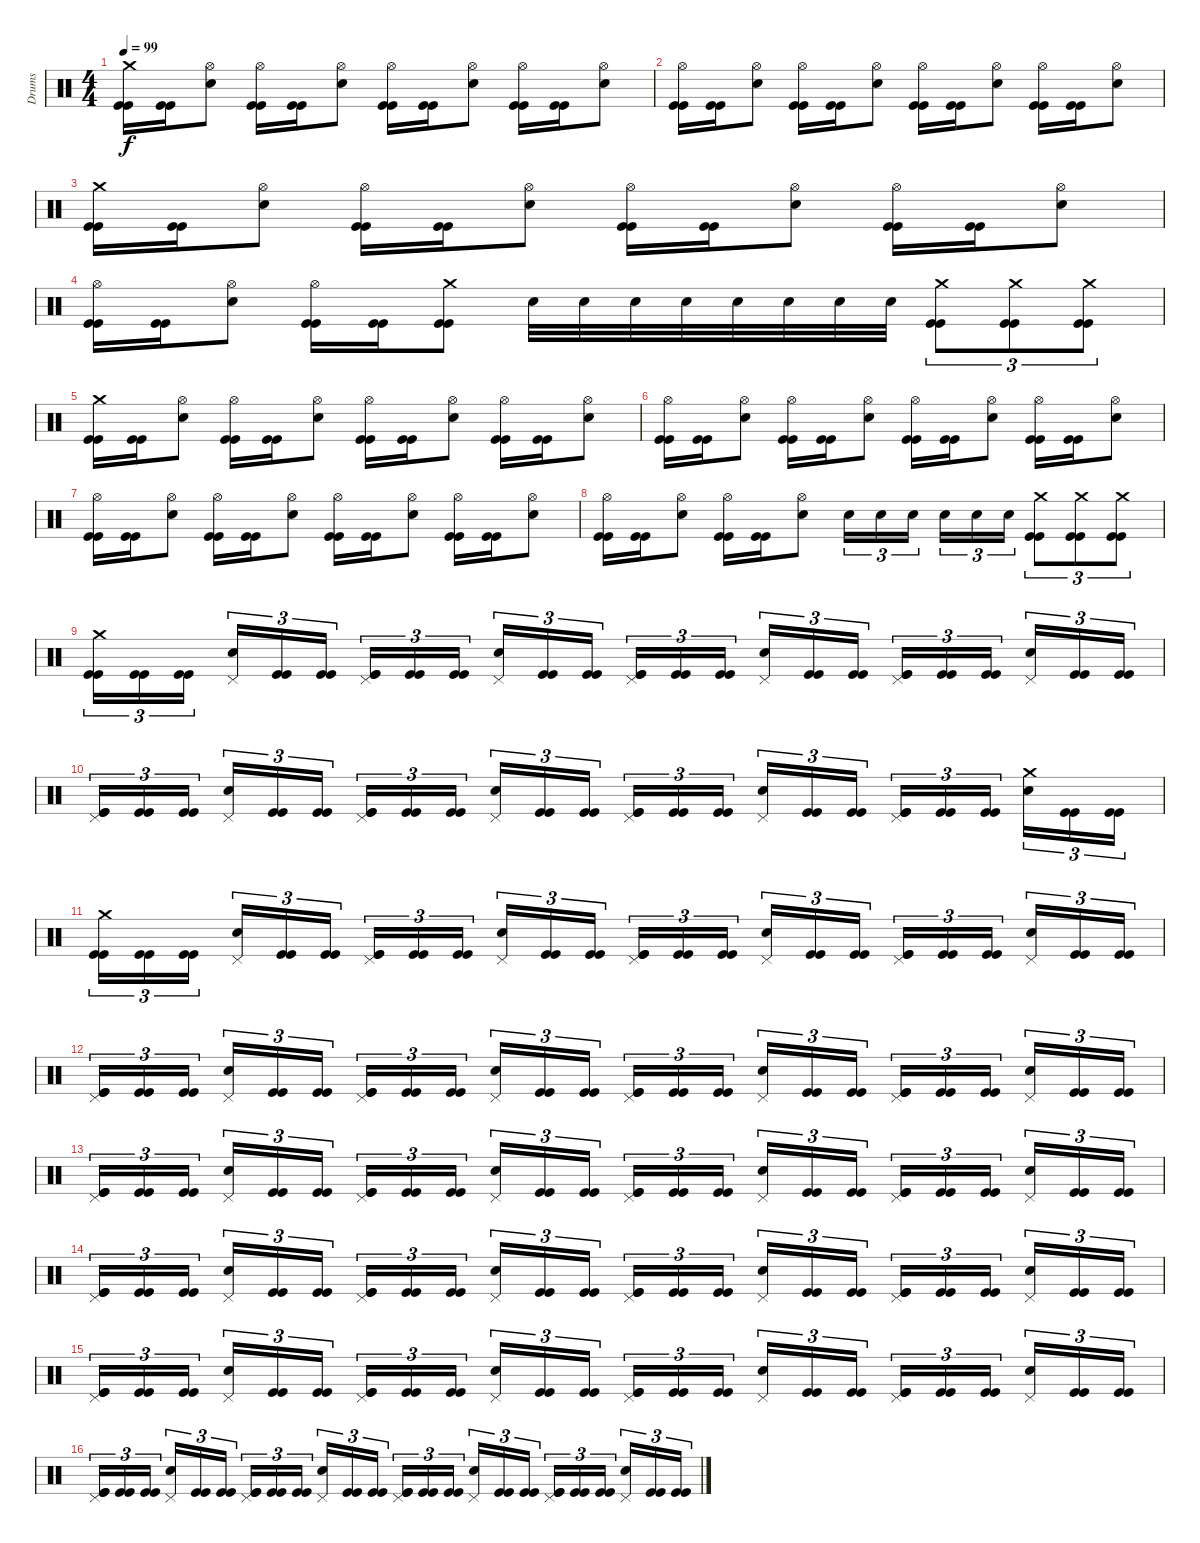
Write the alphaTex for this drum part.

\track ("Drums" "Drums") {instrument percussion}
\staff {score}
\articulation defaults
\ts (4 4)
\tempo 99
\clef neutral
\ks c
("Crash medium (hit)" "Kick (hit)" "Kick (hit)").16{dy f} ("Kick (hit)" "Kick (hit)").16 ("Hi-Hat (open)" "Snare (hit) 2").8 ("Hi-Hat (open)" "Kick (hit)" "Kick (hit)").16 ("Kick (hit)" "Kick (hit)").16 ("Hi-Hat (open)" "Snare (hit) 2").8 ("Hi-Hat (open)" "Kick (hit)" "Kick (hit)").16 ("Kick (hit)" "Kick (hit)").16 ("Hi-Hat (open)" "Snare (hit) 2").8 ("Hi-Hat (open)" "Kick (hit)" "Kick (hit)").16 ("Kick (hit)" "Kick (hit)").16 ("Hi-Hat (open)" "Snare (hit) 2").8 |
("Hi-Hat (open)" "Kick (hit)" "Kick (hit)").16 ("Kick (hit)" "Kick (hit)").16 ("Hi-Hat (open)" "Snare (hit) 2").8 ("Hi-Hat (open)" "Kick (hit)" "Kick (hit)").16 ("Kick (hit)" "Kick (hit)").16 ("Hi-Hat (open)" "Snare (hit) 2").8 ("Hi-Hat (open)" "Kick (hit)" "Kick (hit)").16 ("Kick (hit)" "Kick (hit)").16 ("Hi-Hat (open)" "Snare (hit) 2").8 ("Hi-Hat (open)" "Kick (hit)" "Kick (hit)").16 ("Kick (hit)" "Kick (hit)").16 ("Hi-Hat (open)" "Snare (hit) 2").8 |
("Crash medium (hit)" "Kick (hit)" "Kick (hit)").16 ("Kick (hit)" "Kick (hit)").16 ("Hi-Hat (open)" "Snare (hit) 2").8 ("Hi-Hat (open)" "Kick (hit)" "Kick (hit)").16 ("Kick (hit)" "Kick (hit)").16 ("Hi-Hat (open)" "Snare (hit) 2").8 ("Hi-Hat (open)" "Kick (hit)" "Kick (hit)").16 ("Kick (hit)" "Kick (hit)").16 ("Hi-Hat (open)" "Snare (hit) 2").8 ("Hi-Hat (open)" "Kick (hit)" "Kick (hit)").16 ("Kick (hit)" "Kick (hit)").16 ("Hi-Hat (open)" "Snare (hit) 2").8 |
("Hi-Hat (open)" "Kick (hit)" "Kick (hit)").16 ("Kick (hit)" "Kick (hit)").16 ("Hi-Hat (open)" "Snare (hit) 2").8 ("Hi-Hat (open)" "Kick (hit)" "Kick (hit)").16 ("Kick (hit)" "Kick (hit)").16 ("Crash medium (hit)" "Kick (hit)" "Kick (hit)").8 "Snare (hit) 2".32 "Snare (hit) 2".32 "Snare (hit) 2".32 "Snare (hit) 2".32 "Snare (hit) 2".32 "Snare (hit) 2".32 "Snare (hit) 2".32 "Snare (hit) 2".32 ("Crash medium (hit)" "Kick (hit)" "Kick (hit)").8{tu (3 2)} ("Crash medium (hit)" "Kick (hit)" "Kick (hit)").8{tu (3 2)} ("Crash medium (hit)" "Kick (hit)" "Kick (hit)").8{tu (3 2)} |
("Crash medium (hit)" "Kick (hit)" "Kick (hit)").16 ("Kick (hit)" "Kick (hit)").16 ("Hi-Hat (open)" "Snare (hit) 2").8 ("Hi-Hat (open)" "Kick (hit)" "Kick (hit)").16 ("Kick (hit)" "Kick (hit)").16 ("Hi-Hat (open)" "Snare (hit) 2").8 ("Hi-Hat (open)" "Kick (hit)" "Kick (hit)").16 ("Kick (hit)" "Kick (hit)").16 ("Hi-Hat (open)" "Snare (hit) 2").8 ("Hi-Hat (open)" "Kick (hit)" "Kick (hit)").16 ("Kick (hit)" "Kick (hit)").16 ("Hi-Hat (open)" "Snare (hit) 2").8 |
("Hi-Hat (open)" "Kick (hit)" "Kick (hit)").16 ("Kick (hit)" "Kick (hit)").16 ("Hi-Hat (open)" "Snare (hit) 2").8 ("Hi-Hat (open)" "Kick (hit)" "Kick (hit)").16 ("Kick (hit)" "Kick (hit)").16 ("Hi-Hat (open)" "Snare (hit) 2").8 ("Hi-Hat (open)" "Kick (hit)" "Kick (hit)").16 ("Kick (hit)" "Kick (hit)").16 ("Hi-Hat (open)" "Snare (hit) 2").8 ("Hi-Hat (open)" "Kick (hit)" "Kick (hit)").16 ("Kick (hit)" "Kick (hit)").16 ("Hi-Hat (open)" "Snare (hit) 2").8 |
("Hi-Hat (open)" "Kick (hit)" "Kick (hit)").16 ("Kick (hit)" "Kick (hit)").16 ("Hi-Hat (open)" "Snare (hit) 2").8 ("Hi-Hat (open)" "Kick (hit)" "Kick (hit)").16 ("Kick (hit)" "Kick (hit)").16 ("Hi-Hat (open)" "Snare (hit) 2").8 ("Hi-Hat (open)" "Kick (hit)" "Kick (hit)").16 ("Kick (hit)" "Kick (hit)").16 ("Hi-Hat (open)" "Snare (hit) 2").8 ("Hi-Hat (open)" "Kick (hit)" "Kick (hit)").16 ("Kick (hit)" "Kick (hit)").16 ("Hi-Hat (open)" "Snare (hit) 2").8 |
("Hi-Hat (open)" "Kick (hit)" "Kick (hit)").16 ("Kick (hit)" "Kick (hit)").16 ("Hi-Hat (open)" "Snare (hit) 2").8 ("Hi-Hat (open)" "Kick (hit)" "Kick (hit)").16 ("Kick (hit)" "Kick (hit)").16 ("Hi-Hat (open)" "Snare (hit) 2").8 "Snare (hit) 2".16{tu (3 2)} "Snare (hit) 2".16{tu (3 2)} "Snare (hit) 2".16{tu (3 2)} "Snare (hit) 2".16{tu (3 2)} "Snare (hit) 2".16{tu (3 2)} "Snare (hit) 2".16{tu (3 2)} ("Crash medium (hit)" "Kick (hit)" "Kick (hit)").8{tu (3 2)} ("Crash medium (hit)" "Kick (hit)" "Kick (hit)").8{tu (3 2)} ("Crash medium (hit)" "Kick (hit)" "Kick (hit)").8{tu (3 2)} |
("Crash medium (hit)" "Kick (hit)" "Kick (hit)").16{tu (3 2)} ("Kick (hit)" "Kick (hit)").16{tu (3 2)} ("Kick (hit)" "Kick (hit)").16{tu (3 2)} ("Pedal Hi-Hat (hit)" "Snare (hit) 2").16{tu (3 2)} ("Kick (hit)" "Kick (hit)").16{tu (3 2)} ("Kick (hit)" "Kick (hit)").16{tu (3 2)} ("Pedal Hi-Hat (hit)" "Kick (hit)" "Kick (hit)").16{tu (3 2)} ("Kick (hit)" "Kick (hit)").16{tu (3 2)} ("Kick (hit)" "Kick (hit)").16{tu (3 2)} ("Pedal Hi-Hat (hit)" "Snare (hit) 2").16{tu (3 2)} ("Kick (hit)" "Kick (hit)").16{tu (3 2)} ("Kick (hit)" "Kick (hit)").16{tu (3 2)} ("Pedal Hi-Hat (hit)" "Kick (hit)" "Kick (hit)").16{tu (3 2)} ("Kick (hit)" "Kick (hit)").16{tu (3 2)} ("Kick (hit)" "Kick (hit)").16{tu (3 2)} ("Pedal Hi-Hat (hit)" "Snare (hit) 2").16{tu (3 2)} ("Kick (hit)" "Kick (hit)").16{tu (3 2)} ("Kick (hit)" "Kick (hit)").16{tu (3 2)} ("Pedal Hi-Hat (hit)" "Kick (hit)" "Kick (hit)").16{tu (3 2)} ("Kick (hit)" "Kick (hit)").16{tu (3 2)} ("Kick (hit)" "Kick (hit)").16{tu (3 2)} ("Pedal Hi-Hat (hit)" "Snare (hit) 2").16{tu (3 2)} ("Kick (hit)" "Kick (hit)").16{tu (3 2)} ("Kick (hit)" "Kick (hit)").16{tu (3 2)} |
("Pedal Hi-Hat (hit)" "Kick (hit)" "Kick (hit)").16{tu (3 2)} ("Kick (hit)" "Kick (hit)").16{tu (3 2)} ("Kick (hit)" "Kick (hit)").16{tu (3 2)} ("Pedal Hi-Hat (hit)" "Snare (hit) 2").16{tu (3 2)} ("Kick (hit)" "Kick (hit)").16{tu (3 2)} ("Kick (hit)" "Kick (hit)").16{tu (3 2)} ("Pedal Hi-Hat (hit)" "Kick (hit)" "Kick (hit)").16{tu (3 2)} ("Kick (hit)" "Kick (hit)").16{tu (3 2)} ("Kick (hit)" "Kick (hit)").16{tu (3 2)} ("Pedal Hi-Hat (hit)" "Snare (hit) 2").16{tu (3 2)} ("Kick (hit)" "Kick (hit)").16{tu (3 2)} ("Kick (hit)" "Kick (hit)").16{tu (3 2)} ("Pedal Hi-Hat (hit)" "Kick (hit)" "Kick (hit)").16{tu (3 2)} ("Kick (hit)" "Kick (hit)").16{tu (3 2)} ("Kick (hit)" "Kick (hit)").16{tu (3 2)} ("Pedal Hi-Hat (hit)" "Snare (hit) 2").16{tu (3 2)} ("Kick (hit)" "Kick (hit)").16{tu (3 2)} ("Kick (hit)" "Kick (hit)").16{tu (3 2)} ("Pedal Hi-Hat (hit)" "Kick (hit)" "Kick (hit)").16{tu (3 2)} ("Kick (hit)" "Kick (hit)").16{tu (3 2)} ("Kick (hit)" "Kick (hit)").16{tu (3 2)} ("Crash medium (hit)" "Snare (hit) 2").16{tu (3 2)} ("Kick (hit)" "Kick (hit)").16{tu (3 2)} ("Kick (hit)" "Kick (hit)").16{tu (3 2)} |
("Crash medium (hit)" "Kick (hit)" "Kick (hit)").16{tu (3 2)} ("Kick (hit)" "Kick (hit)").16{tu (3 2)} ("Kick (hit)" "Kick (hit)").16{tu (3 2)} ("Pedal Hi-Hat (hit)" "Snare (hit) 2").16{tu (3 2)} ("Kick (hit)" "Kick (hit)").16{tu (3 2)} ("Kick (hit)" "Kick (hit)").16{tu (3 2)} ("Pedal Hi-Hat (hit)" "Kick (hit)" "Kick (hit)").16{tu (3 2)} ("Kick (hit)" "Kick (hit)").16{tu (3 2)} ("Kick (hit)" "Kick (hit)").16{tu (3 2)} ("Pedal Hi-Hat (hit)" "Snare (hit) 2").16{tu (3 2)} ("Kick (hit)" "Kick (hit)").16{tu (3 2)} ("Kick (hit)" "Kick (hit)").16{tu (3 2)} ("Pedal Hi-Hat (hit)" "Kick (hit)" "Kick (hit)").16{tu (3 2)} ("Kick (hit)" "Kick (hit)").16{tu (3 2)} ("Kick (hit)" "Kick (hit)").16{tu (3 2)} ("Pedal Hi-Hat (hit)" "Snare (hit) 2").16{tu (3 2)} ("Kick (hit)" "Kick (hit)").16{tu (3 2)} ("Kick (hit)" "Kick (hit)").16{tu (3 2)} ("Pedal Hi-Hat (hit)" "Kick (hit)" "Kick (hit)").16{tu (3 2)} ("Kick (hit)" "Kick (hit)").16{tu (3 2)} ("Kick (hit)" "Kick (hit)").16{tu (3 2)} ("Pedal Hi-Hat (hit)" "Snare (hit) 2").16{tu (3 2)} ("Kick (hit)" "Kick (hit)").16{tu (3 2)} ("Kick (hit)" "Kick (hit)").16{tu (3 2)} |
("Pedal Hi-Hat (hit)" "Kick (hit)" "Kick (hit)").16{tu (3 2)} ("Kick (hit)" "Kick (hit)").16{tu (3 2)} ("Kick (hit)" "Kick (hit)").16{tu (3 2)} ("Pedal Hi-Hat (hit)" "Snare (hit) 2").16{tu (3 2)} ("Kick (hit)" "Kick (hit)").16{tu (3 2)} ("Kick (hit)" "Kick (hit)").16{tu (3 2)} ("Pedal Hi-Hat (hit)" "Kick (hit)" "Kick (hit)").16{tu (3 2)} ("Kick (hit)" "Kick (hit)").16{tu (3 2)} ("Kick (hit)" "Kick (hit)").16{tu (3 2)} ("Pedal Hi-Hat (hit)" "Snare (hit) 2").16{tu (3 2)} ("Kick (hit)" "Kick (hit)").16{tu (3 2)} ("Kick (hit)" "Kick (hit)").16{tu (3 2)} ("Pedal Hi-Hat (hit)" "Kick (hit)" "Kick (hit)").16{tu (3 2)} ("Kick (hit)" "Kick (hit)").16{tu (3 2)} ("Kick (hit)" "Kick (hit)").16{tu (3 2)} ("Pedal Hi-Hat (hit)" "Snare (hit) 2").16{tu (3 2)} ("Kick (hit)" "Kick (hit)").16{tu (3 2)} ("Kick (hit)" "Kick (hit)").16{tu (3 2)} ("Pedal Hi-Hat (hit)" "Kick (hit)" "Kick (hit)").16{tu (3 2)} ("Kick (hit)" "Kick (hit)").16{tu (3 2)} ("Kick (hit)" "Kick (hit)").16{tu (3 2)} ("Pedal Hi-Hat (hit)" "Snare (hit) 2").16{tu (3 2)} ("Kick (hit)" "Kick (hit)").16{tu (3 2)} ("Kick (hit)" "Kick (hit)").16{tu (3 2)} |
("Pedal Hi-Hat (hit)" "Kick (hit)" "Kick (hit)").16{tu (3 2)} ("Kick (hit)" "Kick (hit)").16{tu (3 2)} ("Kick (hit)" "Kick (hit)").16{tu (3 2)} ("Pedal Hi-Hat (hit)" "Snare (hit) 2").16{tu (3 2)} ("Kick (hit)" "Kick (hit)").16{tu (3 2)} ("Kick (hit)" "Kick (hit)").16{tu (3 2)} ("Pedal Hi-Hat (hit)" "Kick (hit)" "Kick (hit)").16{tu (3 2)} ("Kick (hit)" "Kick (hit)").16{tu (3 2)} ("Kick (hit)" "Kick (hit)").16{tu (3 2)} ("Pedal Hi-Hat (hit)" "Snare (hit) 2").16{tu (3 2)} ("Kick (hit)" "Kick (hit)").16{tu (3 2)} ("Kick (hit)" "Kick (hit)").16{tu (3 2)} ("Pedal Hi-Hat (hit)" "Kick (hit)" "Kick (hit)").16{tu (3 2)} ("Kick (hit)" "Kick (hit)").16{tu (3 2)} ("Kick (hit)" "Kick (hit)").16{tu (3 2)} ("Pedal Hi-Hat (hit)" "Snare (hit) 2").16{tu (3 2)} ("Kick (hit)" "Kick (hit)").16{tu (3 2)} ("Kick (hit)" "Kick (hit)").16{tu (3 2)} ("Pedal Hi-Hat (hit)" "Kick (hit)" "Kick (hit)").16{tu (3 2)} ("Kick (hit)" "Kick (hit)").16{tu (3 2)} ("Kick (hit)" "Kick (hit)").16{tu (3 2)} ("Pedal Hi-Hat (hit)" "Snare (hit) 2").16{tu (3 2)} ("Kick (hit)" "Kick (hit)").16{tu (3 2)} ("Kick (hit)" "Kick (hit)").16{tu (3 2)} |
("Pedal Hi-Hat (hit)" "Kick (hit)" "Kick (hit)").16{tu (3 2)} ("Kick (hit)" "Kick (hit)").16{tu (3 2)} ("Kick (hit)" "Kick (hit)").16{tu (3 2)} ("Pedal Hi-Hat (hit)" "Snare (hit) 2").16{tu (3 2)} ("Kick (hit)" "Kick (hit)").16{tu (3 2)} ("Kick (hit)" "Kick (hit)").16{tu (3 2)} ("Pedal Hi-Hat (hit)" "Kick (hit)" "Kick (hit)").16{tu (3 2)} ("Kick (hit)" "Kick (hit)").16{tu (3 2)} ("Kick (hit)" "Kick (hit)").16{tu (3 2)} ("Pedal Hi-Hat (hit)" "Snare (hit) 2").16{tu (3 2)} ("Kick (hit)" "Kick (hit)").16{tu (3 2)} ("Kick (hit)" "Kick (hit)").16{tu (3 2)} ("Pedal Hi-Hat (hit)" "Kick (hit)" "Kick (hit)").16{tu (3 2)} ("Kick (hit)" "Kick (hit)").16{tu (3 2)} ("Kick (hit)" "Kick (hit)").16{tu (3 2)} ("Pedal Hi-Hat (hit)" "Snare (hit) 2").16{tu (3 2)} ("Kick (hit)" "Kick (hit)").16{tu (3 2)} ("Kick (hit)" "Kick (hit)").16{tu (3 2)} ("Pedal Hi-Hat (hit)" "Kick (hit)" "Kick (hit)").16{tu (3 2)} ("Kick (hit)" "Kick (hit)").16{tu (3 2)} ("Kick (hit)" "Kick (hit)").16{tu (3 2)} ("Pedal Hi-Hat (hit)" "Snare (hit) 2").16{tu (3 2)} ("Kick (hit)" "Kick (hit)").16{tu (3 2)} ("Kick (hit)" "Kick (hit)").16{tu (3 2)} |
("Pedal Hi-Hat (hit)" "Kick (hit)" "Kick (hit)").16{tu (3 2)} ("Kick (hit)" "Kick (hit)").16{tu (3 2)} ("Kick (hit)" "Kick (hit)").16{tu (3 2)} ("Pedal Hi-Hat (hit)" "Snare (hit) 2").16{tu (3 2)} ("Kick (hit)" "Kick (hit)").16{tu (3 2)} ("Kick (hit)" "Kick (hit)").16{tu (3 2)} ("Pedal Hi-Hat (hit)" "Kick (hit)" "Kick (hit)").16{tu (3 2)} ("Kick (hit)" "Kick (hit)").16{tu (3 2)} ("Kick (hit)" "Kick (hit)").16{tu (3 2)} ("Pedal Hi-Hat (hit)" "Snare (hit) 2").16{tu (3 2)} ("Kick (hit)" "Kick (hit)").16{tu (3 2)} ("Kick (hit)" "Kick (hit)").16{tu (3 2)} ("Pedal Hi-Hat (hit)" "Kick (hit)" "Kick (hit)").16{tu (3 2)} ("Kick (hit)" "Kick (hit)").16{tu (3 2)} ("Kick (hit)" "Kick (hit)").16{tu (3 2)} ("Pedal Hi-Hat (hit)" "Snare (hit) 2").16{tu (3 2)} ("Kick (hit)" "Kick (hit)").16{tu (3 2)} ("Kick (hit)" "Kick (hit)").16{tu (3 2)} ("Pedal Hi-Hat (hit)" "Kick (hit)" "Kick (hit)").16{tu (3 2)} ("Kick (hit)" "Kick (hit)").16{tu (3 2)} ("Kick (hit)" "Kick (hit)").16{tu (3 2)} ("Pedal Hi-Hat (hit)" "Snare (hit) 2").16{tu (3 2)} ("Kick (hit)" "Kick (hit)").16{tu (3 2)} ("Kick (hit)" "Kick (hit)").16{tu (3 2)} |
("Pedal Hi-Hat (hit)" "Kick (hit)" "Kick (hit)").16{tu (3 2)} ("Kick (hit)" "Kick (hit)").16{tu (3 2)} ("Kick (hit)" "Kick (hit)").16{tu (3 2)} ("Pedal Hi-Hat (hit)" "Snare (hit) 2").16{tu (3 2)} ("Kick (hit)" "Kick (hit)").16{tu (3 2)} ("Kick (hit)" "Kick (hit)").16{tu (3 2)} ("Pedal Hi-Hat (hit)" "Kick (hit)" "Kick (hit)").16{tu (3 2)} ("Kick (hit)" "Kick (hit)").16{tu (3 2)} ("Kick (hit)" "Kick (hit)").16{tu (3 2)} ("Pedal Hi-Hat (hit)" "Snare (hit) 2").16{tu (3 2)} ("Kick (hit)" "Kick (hit)").16{tu (3 2)} ("Kick (hit)" "Kick (hit)").16{tu (3 2)} ("Pedal Hi-Hat (hit)" "Kick (hit)" "Kick (hit)").16{tu (3 2)} ("Kick (hit)" "Kick (hit)").16{tu (3 2)} ("Kick (hit)" "Kick (hit)").16{tu (3 2)} ("Pedal Hi-Hat (hit)" "Snare (hit) 2").16{tu (3 2)} ("Kick (hit)" "Kick (hit)").16{tu (3 2)} ("Kick (hit)" "Kick (hit)").16{tu (3 2)} ("Pedal Hi-Hat (hit)" "Kick (hit)" "Kick (hit)").16{tu (3 2)} ("Kick (hit)" "Kick (hit)").16{tu (3 2)} ("Kick (hit)" "Kick (hit)").16{tu (3 2)} ("Pedal Hi-Hat (hit)" "Snare (hit) 2").16{tu (3 2)} ("Kick (hit)" "Kick (hit)").16{tu (3 2)} ("Kick (hit)" "Kick (hit)").16{tu (3 2)}
